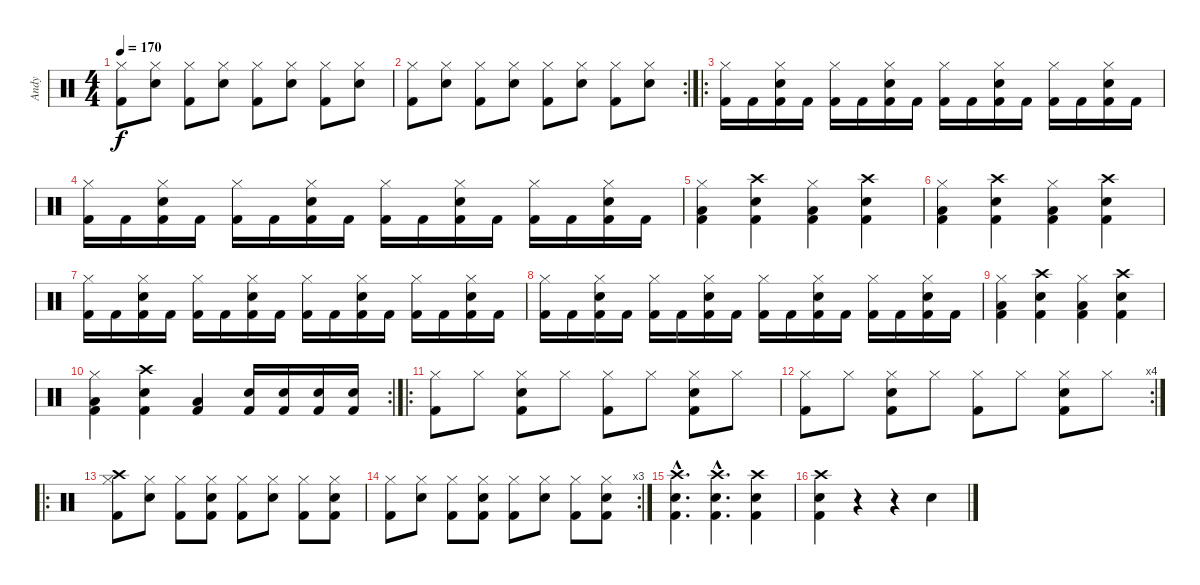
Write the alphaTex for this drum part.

\track ("Andy" "Andy") {instrument percussion}
\staff {score}
\articulation defaults
\ts (4 4)
\tempo 170
\clef neutral
\ks c
("Hi-Hat (closed)" "Kick (hit) 2").8{dy f} ("Hi-Hat (closed)" "Electric Snare (hit)").8 ("Hi-Hat (closed)" "Kick (hit) 2").8 ("Hi-Hat (closed)" "Electric Snare (hit)").8 ("Hi-Hat (closed)" "Kick (hit) 2").8 ("Hi-Hat (closed)" "Electric Snare (hit)").8 ("Hi-Hat (closed)" "Kick (hit) 2").8 ("Hi-Hat (closed)" "Electric Snare (hit)").8 |
\rc 2
("Hi-Hat (closed)" "Kick (hit) 2").8 ("Hi-Hat (closed)" "Electric Snare (hit)").8 ("Hi-Hat (closed)" "Kick (hit) 2").8 ("Hi-Hat (closed)" "Electric Snare (hit)").8 ("Hi-Hat (closed)" "Kick (hit) 2").8 ("Hi-Hat (closed)" "Electric Snare (hit)").8 ("Hi-Hat (closed)" "Kick (hit) 2").8 ("Hi-Hat (closed)" "Electric Snare (hit)").8 |
\ro
("Kick (hit) 2" "Hi-Hat (closed)").16 "Kick (hit) 2".16 ("Kick (hit) 2" "Hi-Hat (closed)" "Electric Snare (hit)").16 "Kick (hit) 2".16 ("Kick (hit) 2" "Hi-Hat (closed)").16 "Kick (hit) 2".16 ("Kick (hit) 2" "Hi-Hat (closed)" "Electric Snare (hit)").16 "Kick (hit) 2".16 ("Kick (hit) 2" "Hi-Hat (closed)").16 "Kick (hit) 2".16 ("Kick (hit) 2" "Hi-Hat (closed)" "Electric Snare (hit)").16 "Kick (hit) 2".16 ("Kick (hit) 2" "Hi-Hat (closed)").16 "Kick (hit) 2".16 ("Kick (hit) 2" "Hi-Hat (closed)" "Electric Snare (hit)").16 "Kick (hit) 2".16 |
("Kick (hit) 2" "Hi-Hat (closed)").16 "Kick (hit) 2".16 ("Kick (hit) 2" "Hi-Hat (closed)" "Electric Snare (hit)").16 "Kick (hit) 2".16 ("Kick (hit) 2" "Hi-Hat (closed)").16 "Kick (hit) 2".16 ("Kick (hit) 2" "Hi-Hat (closed)" "Electric Snare (hit)").16 "Kick (hit) 2".16 ("Kick (hit) 2" "Hi-Hat (closed)").16 "Kick (hit) 2".16 ("Kick (hit) 2" "Hi-Hat (closed)" "Electric Snare (hit)").16 "Kick (hit) 2".16 ("Kick (hit) 2" "Hi-Hat (closed)").16 "Kick (hit) 2".16 ("Kick (hit) 2" "Hi-Hat (closed)" "Electric Snare (hit)").16 "Kick (hit) 2".16 |
("Kick (hit) 2" "Low Tom (hit)" "Hi-Hat (closed)").4 ("Kick (hit) 2" "Electric Snare (hit)" "Crash high (hit)").4 ("Kick (hit) 2" "Low Tom (hit)" "Hi-Hat (closed)").4 ("Kick (hit) 2" "Electric Snare (hit)" "Crash high (hit)").4 |
("Kick (hit) 2" "Low Tom (hit)" "Hi-Hat (closed)").4 ("Kick (hit) 2" "Electric Snare (hit)" "Crash high (hit)").4 ("Kick (hit) 2" "Low Tom (hit)" "Hi-Hat (closed)").4 ("Kick (hit) 2" "Electric Snare (hit)" "Crash high (hit)").4 |
("Kick (hit) 2" "Hi-Hat (closed)").16 "Kick (hit) 2".16 ("Kick (hit) 2" "Hi-Hat (closed)" "Electric Snare (hit)").16 "Kick (hit) 2".16 ("Kick (hit) 2" "Hi-Hat (closed)").16 "Kick (hit) 2".16 ("Kick (hit) 2" "Hi-Hat (closed)" "Electric Snare (hit)").16 "Kick (hit) 2".16 ("Kick (hit) 2" "Hi-Hat (closed)").16 "Kick (hit) 2".16 ("Kick (hit) 2" "Hi-Hat (closed)" "Electric Snare (hit)").16 "Kick (hit) 2".16 ("Kick (hit) 2" "Hi-Hat (closed)").16 "Kick (hit) 2".16 ("Kick (hit) 2" "Hi-Hat (closed)" "Electric Snare (hit)").16 "Kick (hit) 2".16 |
("Kick (hit) 2" "Hi-Hat (closed)").16 "Kick (hit) 2".16 ("Kick (hit) 2" "Hi-Hat (closed)" "Electric Snare (hit)").16 "Kick (hit) 2".16 ("Kick (hit) 2" "Hi-Hat (closed)").16 "Kick (hit) 2".16 ("Kick (hit) 2" "Hi-Hat (closed)" "Electric Snare (hit)").16 "Kick (hit) 2".16 ("Kick (hit) 2" "Hi-Hat (closed)").16 "Kick (hit) 2".16 ("Kick (hit) 2" "Hi-Hat (closed)" "Electric Snare (hit)").16 "Kick (hit) 2".16 ("Kick (hit) 2" "Hi-Hat (closed)").16 "Kick (hit) 2".16 ("Kick (hit) 2" "Hi-Hat (closed)" "Electric Snare (hit)").16 "Kick (hit) 2".16 |
("Kick (hit) 2" "Low Tom (hit)" "Hi-Hat (closed)").4 ("Kick (hit) 2" "Electric Snare (hit)" "Crash high (hit)").4 ("Kick (hit) 2" "Low Tom (hit)" "Hi-Hat (closed)").4 ("Kick (hit) 2" "Electric Snare (hit)" "Crash high (hit)").4 |
\rc 2
("Kick (hit) 2" "Low Tom (hit)" "Hi-Hat (closed)").4 ("Kick (hit) 2" "Electric Snare (hit)" "Crash high (hit)").4 ("Kick (hit) 2" "Low Tom (hit)").4 ("Kick (hit) 2" "Electric Snare (hit)").16 ("Kick (hit) 2" "Electric Snare (hit)").16 ("Kick (hit) 2" "Electric Snare (hit)").16 ("Kick (hit) 2" "Electric Snare (hit)").16 |
\ro
("Hi-Hat (closed)" "Kick (hit) 2").8 "Hi-Hat (closed)".8 ("Hi-Hat (closed)" "Electric Snare (hit)" "Kick (hit) 2").8 "Hi-Hat (closed)".8 ("Hi-Hat (closed)" "Kick (hit) 2").8 "Hi-Hat (closed)".8 ("Hi-Hat (closed)" "Electric Snare (hit)" "Kick (hit) 2").8 "Hi-Hat (closed)".8 |
\rc 4
("Hi-Hat (closed)" "Kick (hit) 2").8 "Hi-Hat (closed)".8 ("Hi-Hat (closed)" "Electric Snare (hit)" "Kick (hit) 2").8 "Hi-Hat (closed)".8 ("Hi-Hat (closed)" "Kick (hit) 2").8 "Hi-Hat (closed)".8 ("Hi-Hat (closed)" "Electric Snare (hit)" "Kick (hit) 2").8 "Hi-Hat (closed)".8 |
\ro
("Hi-Hat (closed)" "Kick (hit) 2" "Crash high (hit)").8 ("Hi-Hat (closed)" "Electric Snare (hit)").8 ("Hi-Hat (closed)" "Kick (hit) 2").8 ("Hi-Hat (closed)" "Electric Snare (hit)" "Kick (hit) 2").8 ("Hi-Hat (closed)" "Kick (hit) 2").8 ("Hi-Hat (closed)" "Electric Snare (hit)").8 ("Hi-Hat (closed)" "Kick (hit) 2").8 ("Hi-Hat (closed)" "Electric Snare (hit)" "Kick (hit) 2").8 |
\rc 3
("Hi-Hat (closed)" "Kick (hit) 2").8 ("Hi-Hat (closed)" "Electric Snare (hit)").8 ("Hi-Hat (closed)" "Kick (hit) 2").8 ("Hi-Hat (closed)" "Electric Snare (hit)" "Kick (hit) 2").8 ("Hi-Hat (closed)" "Kick (hit) 2").8 ("Hi-Hat (closed)" "Electric Snare (hit)").8 ("Hi-Hat (closed)" "Kick (hit) 2").8 ("Hi-Hat (closed)" "Electric Snare (hit)" "Kick (hit) 2").8 |
("Electric Snare (hit)"{hac} "Crash high (hit)"{hac} "Kick (hit) 2"{hac}).4{d} ("Electric Snare (hit)"{hac} "Crash high (hit)"{hac} "Kick (hit) 2"{hac}).4{d} ("Electric Snare (hit)" "Crash high (hit)" "Kick (hit) 2").4 |
("Electric Snare (hit)" "Crash high (hit)" "Kick (hit) 2").4 r.4 r.4 "Electric Snare (hit)".4
